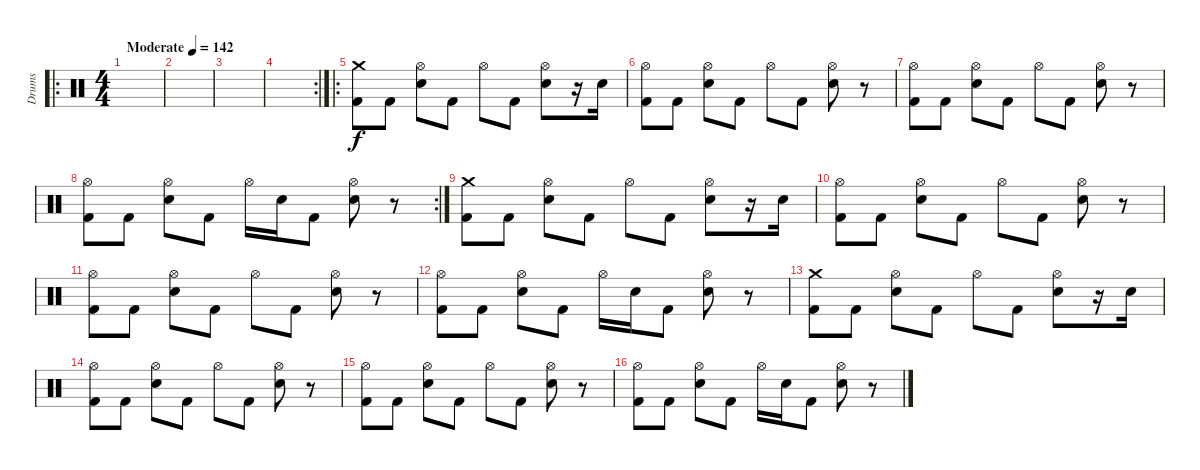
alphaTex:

\track ("Drums" "Drums") {instrument percussion}
\staff {score}
\articulation defaults
\ro
\ts (4 4)
\tempo (142 "Moderate")
\clef neutral
\ks c
|
|
|
\rc 2
|
\ro
("Crash medium (hit)" "Kick (hit) 2").8 "Kick (hit) 2".8 ("Hi-Hat (open)" "Snare (hit) 2").8 "Kick (hit) 2".8 "Hi-Hat (open)".8 "Kick (hit) 2".8 ("Hi-Hat (open)" "Snare (hit) 2").8 r.16 "Snare (hit) 2".16 |
("Hi-Hat (open)" "Kick (hit) 2").8 "Kick (hit) 2".8 ("Hi-Hat (open)" "Snare (hit) 2").8 "Kick (hit) 2".8 "Hi-Hat (open)".8 "Kick (hit) 2".8 ("Hi-Hat (open)" "Snare (hit) 2").8 r.8 |
("Hi-Hat (open)" "Kick (hit) 2").8 "Kick (hit) 2".8 ("Hi-Hat (open)" "Snare (hit) 2").8 "Kick (hit) 2".8 "Hi-Hat (open)".8 "Kick (hit) 2".8 ("Hi-Hat (open)" "Snare (hit) 2").8 r.8 |
\rc 2
("Hi-Hat (open)" "Kick (hit) 2").8 "Kick (hit) 2".8 ("Hi-Hat (open)" "Snare (hit) 2").8 "Kick (hit) 2".8 "Hi-Hat (open)".16 "Snare (hit) 2".16 "Kick (hit) 2".8 ("Hi-Hat (open)" "Snare (hit) 2").8 r.8 |
("Crash medium (hit)" "Kick (hit) 2").8 "Kick (hit) 2".8 ("Hi-Hat (open)" "Snare (hit) 2").8 "Kick (hit) 2".8 "Hi-Hat (open)".8 "Kick (hit) 2".8 ("Hi-Hat (open)" "Snare (hit) 2").8 r.16 "Snare (hit) 2".16 |
("Hi-Hat (open)" "Kick (hit) 2").8 "Kick (hit) 2".8 ("Hi-Hat (open)" "Snare (hit) 2").8 "Kick (hit) 2".8 "Hi-Hat (open)".8 "Kick (hit) 2".8 ("Hi-Hat (open)" "Snare (hit) 2").8 r.8 |
("Hi-Hat (open)" "Kick (hit) 2").8 "Kick (hit) 2".8 ("Hi-Hat (open)" "Snare (hit) 2").8 "Kick (hit) 2".8 "Hi-Hat (open)".8 "Kick (hit) 2".8 ("Hi-Hat (open)" "Snare (hit) 2").8 r.8 |
("Hi-Hat (open)" "Kick (hit) 2").8 "Kick (hit) 2".8 ("Hi-Hat (open)" "Snare (hit) 2").8 "Kick (hit) 2".8 "Hi-Hat (open)".16 "Snare (hit) 2".16 "Kick (hit) 2".8 ("Hi-Hat (open)" "Snare (hit) 2").8 r.8 |
("Crash medium (hit)" "Kick (hit) 2").8 "Kick (hit) 2".8 ("Hi-Hat (open)" "Snare (hit) 2").8 "Kick (hit) 2".8 "Hi-Hat (open)".8 "Kick (hit) 2".8 ("Hi-Hat (open)" "Snare (hit) 2").8 r.16 "Snare (hit) 2".16 |
("Hi-Hat (open)" "Kick (hit) 2").8 "Kick (hit) 2".8 ("Hi-Hat (open)" "Snare (hit) 2").8 "Kick (hit) 2".8 "Hi-Hat (open)".8 "Kick (hit) 2".8 ("Hi-Hat (open)" "Snare (hit) 2").8 r.8 |
("Hi-Hat (open)" "Kick (hit) 2").8 "Kick (hit) 2".8 ("Hi-Hat (open)" "Snare (hit) 2").8 "Kick (hit) 2".8 "Hi-Hat (open)".8 "Kick (hit) 2".8 ("Hi-Hat (open)" "Snare (hit) 2").8 r.8 |
("Hi-Hat (open)" "Kick (hit) 2").8 "Kick (hit) 2".8 ("Hi-Hat (open)" "Snare (hit) 2").8 "Kick (hit) 2".8 "Hi-Hat (open)".16 "Snare (hit) 2".16 "Kick (hit) 2".8 ("Hi-Hat (open)" "Snare (hit) 2").8 r.8
